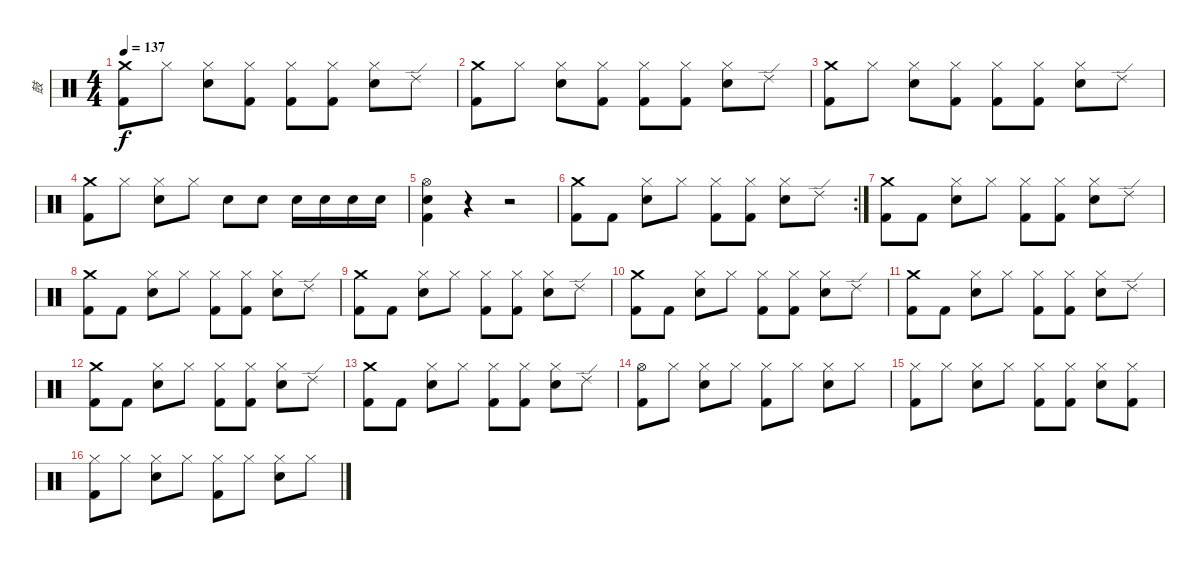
\track ("鼓" "鼓") {instrument percussion}
\staff {score}
\articulation defaults
\ts (4 4)
\tempo 137
\clef neutral
\ks c
("Crash medium (hit)" "Kick (hit) 2").8{dy f} "Hi-Hat (closed)".8 ("Hi-Hat (closed)" "Snare (hit) 2").8 ("Hi-Hat (closed)" "Kick (hit) 2").8 ("Hi-Hat (closed)" "Kick (hit) 2").8 ("Hi-Hat (closed)" "Kick (hit) 2").8 ("Hi-Hat (closed)" "Snare (hit) 2").8 "Ride (edge) 2".8 |
("Crash medium (hit)" "Kick (hit) 2").8 "Hi-Hat (closed)".8 ("Hi-Hat (closed)" "Snare (hit) 2").8 ("Hi-Hat (closed)" "Kick (hit) 2").8 ("Hi-Hat (closed)" "Kick (hit) 2").8 ("Hi-Hat (closed)" "Kick (hit) 2").8 ("Hi-Hat (closed)" "Snare (hit) 2").8 "Ride (edge) 2".8 |
("Crash medium (hit)" "Kick (hit) 2").8 "Hi-Hat (closed)".8 ("Hi-Hat (closed)" "Snare (hit) 2").8 ("Hi-Hat (closed)" "Kick (hit) 2").8 ("Hi-Hat (closed)" "Kick (hit) 2").8 ("Hi-Hat (closed)" "Kick (hit) 2").8 ("Hi-Hat (closed)" "Snare (hit) 2").8 "Ride (edge) 2".8 |
("Crash medium (hit)" "Kick (hit) 2").8 "Hi-Hat (closed)".8 ("Hi-Hat (closed)" "Snare (hit) 2").8 "Hi-Hat (closed)".8 "Snare (hit) 2".8 "Snare (hit) 2".8 "Snare (hit) 2".16 "Snare (hit) 2".16 "Snare (hit) 2".16 "Snare (hit) 2".16 |
("Hi-Hat (open)" "Snare (hit) 2" "Kick (hit) 2").4 r.4 r.2 |
\rc 2
("Crash medium (hit)" "Kick (hit) 2").8 "Kick (hit) 2".8 ("Hi-Hat (closed)" "Snare (hit) 2").8 "Hi-Hat (closed)".8 ("Hi-Hat (closed)" "Kick (hit) 2").8 ("Hi-Hat (closed)" "Kick (hit) 2").8 ("Hi-Hat (closed)" "Snare (hit) 2").8 "Ride (edge) 2".8 |
("Crash medium (hit)" "Kick (hit) 2").8 "Kick (hit) 2".8 ("Hi-Hat (closed)" "Snare (hit) 2").8 "Hi-Hat (closed)".8 ("Hi-Hat (closed)" "Kick (hit) 2").8 ("Hi-Hat (closed)" "Kick (hit) 2").8 ("Hi-Hat (closed)" "Snare (hit) 2").8 "Ride (edge) 2".8 |
("Crash medium (hit)" "Kick (hit) 2").8 "Kick (hit) 2".8 ("Hi-Hat (closed)" "Snare (hit) 2").8 "Hi-Hat (closed)".8 ("Hi-Hat (closed)" "Kick (hit) 2").8 ("Hi-Hat (closed)" "Kick (hit) 2").8 ("Hi-Hat (closed)" "Snare (hit) 2").8 "Ride (edge) 2".8 |
("Crash medium (hit)" "Kick (hit) 2").8 "Kick (hit) 2".8 ("Hi-Hat (closed)" "Snare (hit) 2").8 "Hi-Hat (closed)".8 ("Hi-Hat (closed)" "Kick (hit) 2").8 ("Hi-Hat (closed)" "Kick (hit) 2").8 ("Hi-Hat (closed)" "Snare (hit) 2").8 "Ride (edge) 2".8 |
("Crash medium (hit)" "Kick (hit) 2").8 "Kick (hit) 2".8 ("Hi-Hat (closed)" "Snare (hit) 2").8 "Hi-Hat (closed)".8 ("Hi-Hat (closed)" "Kick (hit) 2").8 ("Hi-Hat (closed)" "Kick (hit) 2").8 ("Hi-Hat (closed)" "Snare (hit) 2").8 "Ride (edge) 2".8 |
("Crash medium (hit)" "Kick (hit) 2").8 "Kick (hit) 2".8 ("Hi-Hat (closed)" "Snare (hit) 2").8 "Hi-Hat (closed)".8 ("Hi-Hat (closed)" "Kick (hit) 2").8 ("Hi-Hat (closed)" "Kick (hit) 2").8 ("Hi-Hat (closed)" "Snare (hit) 2").8 "Ride (edge) 2".8 |
("Crash medium (hit)" "Kick (hit) 2").8 "Kick (hit) 2".8 ("Hi-Hat (closed)" "Snare (hit) 2").8 "Hi-Hat (closed)".8 ("Hi-Hat (closed)" "Kick (hit) 2").8 ("Hi-Hat (closed)" "Kick (hit) 2").8 ("Hi-Hat (closed)" "Snare (hit) 2").8 "Ride (edge) 2".8 |
("Crash medium (hit)" "Kick (hit) 2").8 "Kick (hit) 2".8 ("Hi-Hat (closed)" "Snare (hit) 2").8 "Hi-Hat (closed)".8 ("Hi-Hat (closed)" "Kick (hit) 2").8 ("Hi-Hat (closed)" "Kick (hit) 2").8 ("Hi-Hat (closed)" "Snare (hit) 2").8 "Ride (edge) 2".8 |
("Hi-Hat (open)" "Kick (hit) 2").8 "Hi-Hat (closed)".8 ("Hi-Hat (closed)" "Snare (hit) 2").8 "Hi-Hat (closed)".8 ("Hi-Hat (closed)" "Kick (hit) 2").8 "Hi-Hat (closed)".8 ("Hi-Hat (closed)" "Snare (hit) 2").8 "Hi-Hat (closed)".8 |
("Hi-Hat (closed)" "Kick (hit) 2").8 "Hi-Hat (closed)".8 ("Hi-Hat (closed)" "Snare (hit) 2").8 "Hi-Hat (closed)".8 ("Hi-Hat (closed)" "Kick (hit) 2").8 ("Hi-Hat (closed)" "Kick (hit) 2").8 ("Hi-Hat (closed)" "Snare (hit) 2").8 ("Hi-Hat (closed)" "Kick (hit) 2").8 |
("Hi-Hat (closed)" "Kick (hit) 2").8 "Hi-Hat (closed)".8 ("Hi-Hat (closed)" "Snare (hit) 2").8 "Hi-Hat (closed)".8 ("Hi-Hat (closed)" "Kick (hit) 2").8 "Hi-Hat (closed)".8 ("Hi-Hat (closed)" "Snare (hit) 2").8 "Hi-Hat (closed)".8
